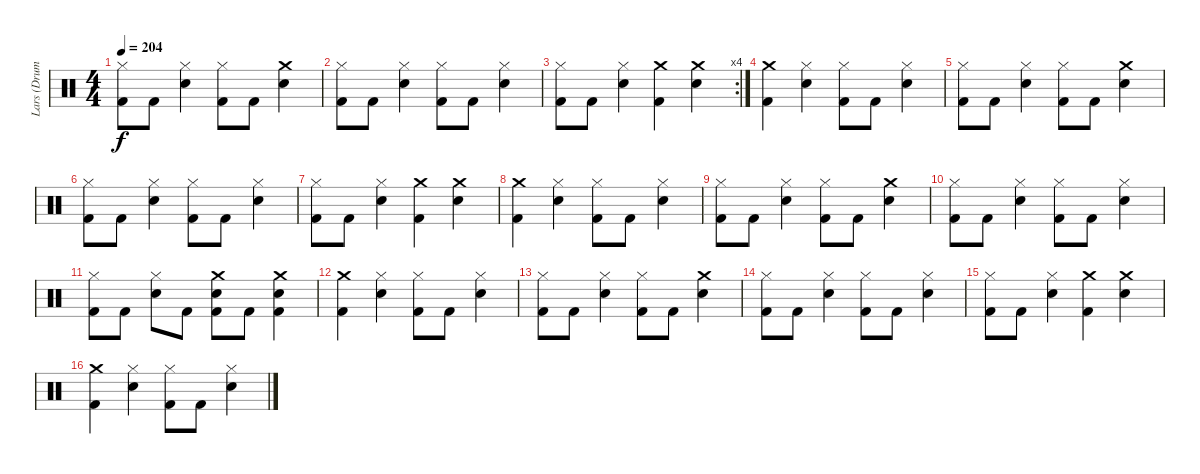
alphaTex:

\track ("Lars (Drums)" "Lars (Drum") {instrument percussion}
\staff {score}
\articulation defaults
\ts (4 4)
\tempo 204
\clef neutral
\ks c
("Hi-Hat (closed)" "Kick (hit) 2").8{dy f} "Kick (hit) 2".8 ("Snare (hit) 2" "Hi-Hat (closed)").4 ("Hi-Hat (closed)" "Kick (hit) 2").8 "Kick (hit) 2".8 ("Crash medium (hit)" "Snare (hit) 2").4 |
("Hi-Hat (closed)" "Kick (hit) 2").8 "Kick (hit) 2".8 ("Snare (hit) 2" "Hi-Hat (closed)").4 ("Hi-Hat (closed)" "Kick (hit) 2").8 "Kick (hit) 2".8 ("Snare (hit) 2" "Hi-Hat (closed)").4 |
\rc 4
("Hi-Hat (closed)" "Kick (hit) 2").8 "Kick (hit) 2".8 ("Snare (hit) 2" "Hi-Hat (closed)").4 ("Crash medium (hit)" "Kick (hit) 2").4 ("Crash medium (hit)" "Snare (hit) 2").4 |
("Kick (hit) 2" "Crash medium (hit)").4 ("Hi-Hat (closed)" "Snare (hit) 2").4 ("Hi-Hat (closed)" "Kick (hit) 2").8 "Kick (hit) 2".8 ("Snare (hit) 2" "Hi-Hat (closed)").4 |
("Hi-Hat (closed)" "Kick (hit) 2").8 "Kick (hit) 2".8 ("Snare (hit) 2" "Hi-Hat (closed)").4 ("Hi-Hat (closed)" "Kick (hit) 2").8 "Kick (hit) 2".8 ("Crash medium (hit)" "Snare (hit) 2").4 |
("Hi-Hat (closed)" "Kick (hit) 2").8 "Kick (hit) 2".8 ("Snare (hit) 2" "Hi-Hat (closed)").4 ("Hi-Hat (closed)" "Kick (hit) 2").8 "Kick (hit) 2".8 ("Snare (hit) 2" "Hi-Hat (closed)").4 |
("Hi-Hat (closed)" "Kick (hit) 2").8 "Kick (hit) 2".8 ("Snare (hit) 2" "Hi-Hat (closed)").4 ("Crash medium (hit)" "Kick (hit) 2").4 ("Crash medium (hit)" "Snare (hit) 2").4 |
("Kick (hit) 2" "Crash medium (hit)").4 ("Hi-Hat (closed)" "Snare (hit) 2").4 ("Hi-Hat (closed)" "Kick (hit) 2").8 "Kick (hit) 2".8 ("Snare (hit) 2" "Hi-Hat (closed)").4 |
("Hi-Hat (closed)" "Kick (hit) 2").8 "Kick (hit) 2".8 ("Snare (hit) 2" "Hi-Hat (closed)").4 ("Hi-Hat (closed)" "Kick (hit) 2").8 "Kick (hit) 2".8 ("Crash medium (hit)" "Snare (hit) 2").4 |
("Hi-Hat (closed)" "Kick (hit) 2").8 "Kick (hit) 2".8 ("Snare (hit) 2" "Hi-Hat (closed)").4 ("Hi-Hat (closed)" "Kick (hit) 2").8 "Kick (hit) 2".8 ("Snare (hit) 2" "Hi-Hat (closed)").4 |
("Hi-Hat (closed)" "Kick (hit) 2").8 "Kick (hit) 2".8 ("Snare (hit) 2" "Hi-Hat (closed)").8 "Kick (hit) 2".8 ("Snare (hit) 2" "Crash medium (hit)" "Kick (hit) 2").8 "Kick (hit) 2".8 ("Kick (hit) 2" "Crash medium (hit)" "Snare (hit) 2").4 |
("Kick (hit) 2" "Crash medium (hit)").4 ("Hi-Hat (closed)" "Snare (hit) 2").4 ("Hi-Hat (closed)" "Kick (hit) 2").8 "Kick (hit) 2".8 ("Snare (hit) 2" "Hi-Hat (closed)").4 |
("Hi-Hat (closed)" "Kick (hit) 2").8 "Kick (hit) 2".8 ("Snare (hit) 2" "Hi-Hat (closed)").4 ("Hi-Hat (closed)" "Kick (hit) 2").8 "Kick (hit) 2".8 ("Crash medium (hit)" "Snare (hit) 2").4 |
("Hi-Hat (closed)" "Kick (hit) 2").8 "Kick (hit) 2".8 ("Snare (hit) 2" "Hi-Hat (closed)").4 ("Hi-Hat (closed)" "Kick (hit) 2").8 "Kick (hit) 2".8 ("Snare (hit) 2" "Hi-Hat (closed)").4 |
("Hi-Hat (closed)" "Kick (hit) 2").8 "Kick (hit) 2".8 ("Snare (hit) 2" "Hi-Hat (closed)").4 ("Crash medium (hit)" "Kick (hit) 2").4 ("Crash medium (hit)" "Snare (hit) 2").4 |
("Kick (hit) 2" "Crash medium (hit)").4 ("Hi-Hat (closed)" "Snare (hit) 2").4 ("Hi-Hat (closed)" "Kick (hit) 2").8 "Kick (hit) 2".8 ("Snare (hit) 2" "Hi-Hat (closed)").4
